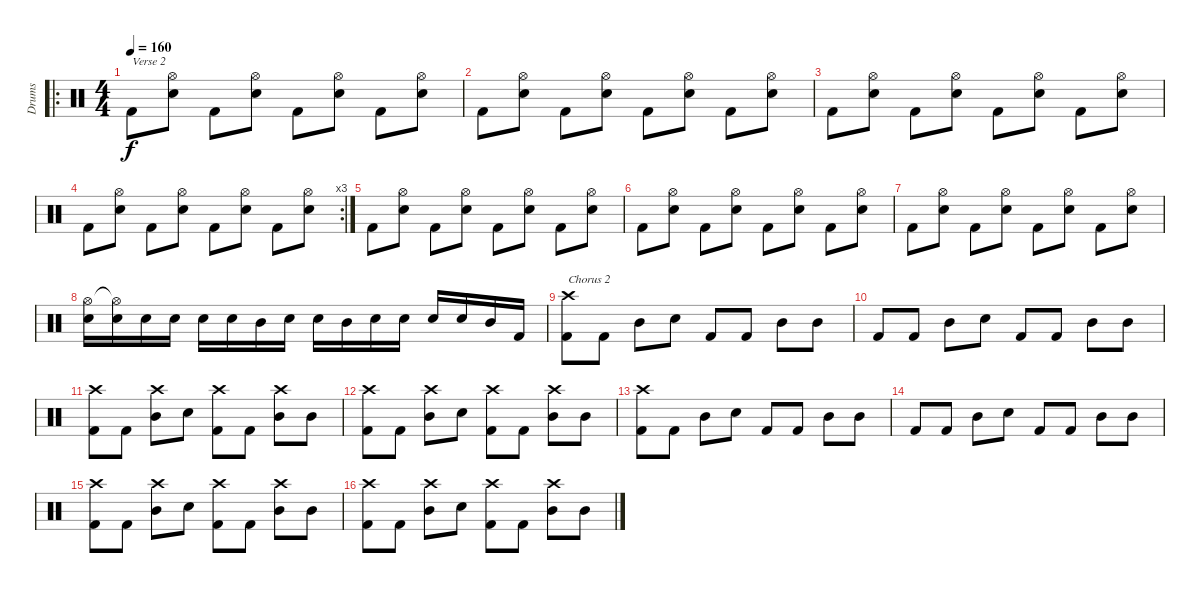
\track ("Drums" "Drums") {instrument percussion}
\staff {score}
\articulation defaults
\ro
\ts (4 4)
\tempo 160
\clef neutral
\ks c "Kick (hit) 2".8{txt "Verse 2" dy f}
("Snare (hit) 2" "Hi-Hat (open)").8 "Kick (hit) 2".8 ("Snare (hit) 2" "Hi-Hat (open)").8 "Kick (hit) 2".8 ("Snare (hit) 2" "Hi-Hat (open)").8 "Kick (hit) 2".8 ("Snare (hit) 2" "Hi-Hat (open)").8 |
"Kick (hit) 2".8 ("Snare (hit) 2" "Hi-Hat (open)").8 "Kick (hit) 2".8 ("Snare (hit) 2" "Hi-Hat (open)").8 "Kick (hit) 2".8 ("Snare (hit) 2" "Hi-Hat (open)").8 "Kick (hit) 2".8 ("Snare (hit) 2" "Hi-Hat (open)").8 |
"Kick (hit) 2".8 ("Snare (hit) 2" "Hi-Hat (open)").8 "Kick (hit) 2".8 ("Snare (hit) 2" "Hi-Hat (open)").8 "Kick (hit) 2".8 ("Snare (hit) 2" "Hi-Hat (open)").8 "Kick (hit) 2".8 ("Snare (hit) 2" "Hi-Hat (open)").8 |
\rc 3 "Kick (hit) 2".8
("Snare (hit) 2" "Hi-Hat (open)").8 "Kick (hit) 2".8 ("Snare (hit) 2" "Hi-Hat (open)").8 "Kick (hit) 2".8 ("Snare (hit) 2" "Hi-Hat (open)").8 "Kick (hit) 2".8 ("Snare (hit) 2" "Hi-Hat (open)").8 |
"Kick (hit) 2".8 ("Snare (hit) 2" "Hi-Hat (open)").8 "Kick (hit) 2".8 ("Snare (hit) 2" "Hi-Hat (open)").8 "Kick (hit) 2".8 ("Snare (hit) 2" "Hi-Hat (open)").8 "Kick (hit) 2".8 ("Snare (hit) 2" "Hi-Hat (open)").8 |
"Kick (hit) 2".8 ("Snare (hit) 2" "Hi-Hat (open)").8 "Kick (hit) 2".8 ("Snare (hit) 2" "Hi-Hat (open)").8 "Kick (hit) 2".8 ("Snare (hit) 2" "Hi-Hat (open)").8 "Kick (hit) 2".8 ("Snare (hit) 2" "Hi-Hat (open)").8 |
"Kick (hit) 2".8 ("Snare (hit) 2" "Hi-Hat (open)").8 "Kick (hit) 2".8 ("Snare (hit) 2" "Hi-Hat (open)").8 "Kick (hit) 2".8 ("Snare (hit) 2" "Hi-Hat (open)").8 "Kick (hit) 2".8 ("Snare (hit) 2" "Hi-Hat (open)").8 |
("Hi-Hat (open)" "Snare (hit) 2").16 ("Hi-Hat (open)"{t} "Snare (hit) 2").16 "Snare (hit) 2".16 "Snare (hit) 2".16 "Snare (hit) 2".16 "Snare (hit) 2".16 "Mid Tom (hit)".16 "Snare (hit) 2".16 "Snare (hit) 2".16 "Mid Tom (hit)".16 "Snare (hit) 2".16 "Snare (hit) 2".16 "Snare (hit) 2".16 "Snare (hit) 2".16 "Mid Tom (hit)".16 "Kick (hit) 2".16 |
("Crash high (hit)" "Kick (hit) 2").8{txt "Chorus 2"} "Kick (hit) 2".8 "Mid Tom (hit)".8 "Snare (hit) 2".8 "Kick (hit) 2".8 "Kick (hit) 2".8 "Mid Tom (hit)".8 "Mid Tom (hit)".8 |
"Kick (hit) 2".8 "Kick (hit) 2".8 "Mid Tom (hit)".8 "Snare (hit) 2".8 "Kick (hit) 2".8 "Kick (hit) 2".8 "Mid Tom (hit)".8 "Mid Tom (hit)".8 |
("Crash high (hit)" "Kick (hit) 2").8 "Kick (hit) 2".8 ("Crash high (hit)" "Mid Tom (hit)").8 "Snare (hit) 2".8 ("Crash high (hit)" "Kick (hit) 2").8 "Kick (hit) 2".8 ("Crash high (hit)" "Mid Tom (hit)").8 "Mid Tom (hit)".8 |
("Crash high (hit)" "Kick (hit) 2").8 "Kick (hit) 2".8 ("Crash high (hit)" "Mid Tom (hit)").8 "Snare (hit) 2".8 ("Crash high (hit)" "Kick (hit) 2").8 "Kick (hit) 2".8 ("Crash high (hit)" "Mid Tom (hit)").8 "Mid Tom (hit)".8 |
("Crash high (hit)" "Kick (hit) 2").8 "Kick (hit) 2".8 "Mid Tom (hit)".8 "Snare (hit) 2".8 "Kick (hit) 2".8 "Kick (hit) 2".8 "Mid Tom (hit)".8 "Mid Tom (hit)".8 |
"Kick (hit) 2".8 "Kick (hit) 2".8 "Mid Tom (hit)".8 "Snare (hit) 2".8 "Kick (hit) 2".8 "Kick (hit) 2".8 "Mid Tom (hit)".8 "Mid Tom (hit)".8 |
("Crash high (hit)" "Kick (hit) 2").8 "Kick (hit) 2".8 ("Crash high (hit)" "Mid Tom (hit)").8 "Snare (hit) 2".8 ("Crash high (hit)" "Kick (hit) 2").8 "Kick (hit) 2".8 ("Crash high (hit)" "Mid Tom (hit)").8 "Mid Tom (hit)".8 |
("Crash high (hit)" "Kick (hit) 2").8 "Kick (hit) 2".8 ("Crash high (hit)" "Mid Tom (hit)").8 "Snare (hit) 2".8 ("Crash high (hit)" "Kick (hit) 2").8 "Kick (hit) 2".8 ("Crash high (hit)" "Mid Tom (hit)").8 "Mid Tom (hit)".8
